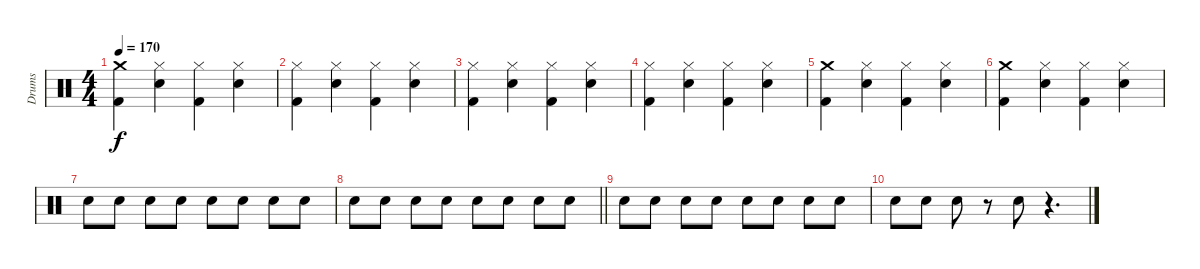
\track ("Drums" "Drums") {instrument percussion}
\staff {score}
\articulation defaults
\ts (4 4)
\tempo 170
\clef neutral
\ks c
("Crash medium (hit)" "Kick (hit) 2").4{dy f} ("Hi-Hat (closed)" "Electric Snare (hit)").4 ("Hi-Hat (closed)" "Kick (hit) 2").4 ("Hi-Hat (closed)" "Electric Snare (hit)").4 |
("Hi-Hat (closed)" "Kick (hit) 2").4 ("Hi-Hat (closed)" "Electric Snare (hit)").4 ("Hi-Hat (closed)" "Kick (hit) 2").4 ("Hi-Hat (closed)" "Electric Snare (hit)").4 |
("Hi-Hat (closed)" "Kick (hit) 2").4 ("Hi-Hat (closed)" "Electric Snare (hit)").4 ("Hi-Hat (closed)" "Kick (hit) 2").4 ("Hi-Hat (closed)" "Electric Snare (hit)").4 |
("Hi-Hat (closed)" "Kick (hit) 2").4 ("Hi-Hat (closed)" "Electric Snare (hit)").4 ("Hi-Hat (closed)" "Kick (hit) 2").4 ("Hi-Hat (closed)" "Electric Snare (hit)").4 |
("Crash medium (hit)" "Kick (hit) 2").4 ("Hi-Hat (closed)" "Electric Snare (hit)").4 ("Hi-Hat (closed)" "Kick (hit) 2").4 ("Hi-Hat (closed)" "Electric Snare (hit)").4 |
("Crash medium (hit)" "Kick (hit) 2").4 ("Hi-Hat (closed)" "Electric Snare (hit)").4 ("Hi-Hat (closed)" "Kick (hit) 2").4 ("Hi-Hat (closed)" "Electric Snare (hit)").4 |
"Electric Snare (hit)".8 "Electric Snare (hit)".8 "Electric Snare (hit)".8 "Electric Snare (hit)".8 "Electric Snare (hit)".8 "Electric Snare (hit)".8 "Electric Snare (hit)".8 "Electric Snare (hit)".8 |
\barLineRight lightlight "Electric Snare (hit)".8 "Electric Snare (hit)".8 "Electric Snare (hit)".8 "Electric Snare (hit)".8 "Electric Snare (hit)".8 "Electric Snare (hit)".8 "Electric Snare (hit)".8 "Electric Snare (hit)".8
|
"Electric Snare (hit)".8 "Electric Snare (hit)".8 "Electric Snare (hit)".8 "Electric Snare (hit)".8 "Electric Snare (hit)".8 "Electric Snare (hit)".8 "Electric Snare (hit)".8 "Electric Snare (hit)".8 |
"Electric Snare (hit)".8 "Electric Snare (hit)".8 "Electric Snare (hit)".8 r.8 "Electric Snare (hit)".8 r.4{d}
